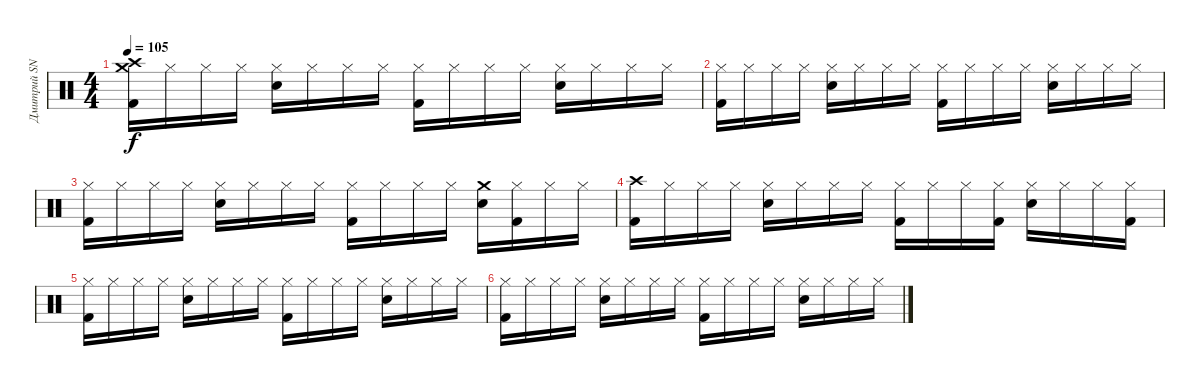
\track ("Дмитрий SNAKE Хакимов (ударные)" "Дмитрий SN") {instrument percussion}
\staff {score}
\articulation defaults
\ts (4 4)
\tempo 105
\clef neutral
\ks c
("Crash high (hit)" "Crash medium (hit)" "Kick (hit) 2").16{dy f} "Hi-Hat (closed)".16 "Hi-Hat (closed)".16 "Hi-Hat (closed)".16 ("Hi-Hat (closed)" "Snare (hit) 2").16 "Hi-Hat (closed)".16 "Hi-Hat (closed)".16 "Hi-Hat (closed)".16 ("Hi-Hat (closed)" "Kick (hit) 2").16 "Hi-Hat (closed)".16 "Hi-Hat (closed)".16 "Hi-Hat (closed)".16 ("Hi-Hat (closed)" "Snare (hit) 2").16 "Hi-Hat (closed)".16 "Hi-Hat (closed)".16 "Hi-Hat (closed)".16 |
("Hi-Hat (closed)" "Kick (hit) 2").16 "Hi-Hat (closed)".16 "Hi-Hat (closed)".16 "Hi-Hat (closed)".16 ("Hi-Hat (closed)" "Snare (hit) 2").16 "Hi-Hat (closed)".16 "Hi-Hat (closed)".16 "Hi-Hat (closed)".16 ("Hi-Hat (closed)" "Kick (hit) 2").16 "Hi-Hat (closed)".16 "Hi-Hat (closed)".16 "Hi-Hat (closed)".16 ("Hi-Hat (closed)" "Snare (hit) 2").16 "Hi-Hat (closed)".16 "Hi-Hat (closed)".16 "Hi-Hat (closed)".16 |
("Hi-Hat (closed)" "Kick (hit) 2").16 "Hi-Hat (closed)".16 "Hi-Hat (closed)".16 "Hi-Hat (closed)".16 ("Hi-Hat (closed)" "Snare (hit) 2").16 "Hi-Hat (closed)".16 "Hi-Hat (closed)".16 "Hi-Hat (closed)".16 ("Hi-Hat (closed)" "Kick (hit) 2").16 "Hi-Hat (closed)".16 "Hi-Hat (closed)".16 "Hi-Hat (closed)".16 ("Crash medium (hit)" "Snare (hit) 2").16 ("Hi-Hat (closed)" "Kick (hit) 2").16 "Hi-Hat (closed)".16 "Hi-Hat (closed)".16 |
("Crash high (hit)" "Kick (hit) 2").16 "Hi-Hat (closed)".16 "Hi-Hat (closed)".16 "Hi-Hat (closed)".16 ("Hi-Hat (closed)" "Snare (hit) 2").16 "Hi-Hat (closed)".16 "Hi-Hat (closed)".16 "Hi-Hat (closed)".16 ("Hi-Hat (closed)" "Kick (hit) 2").16 "Hi-Hat (closed)".16 "Hi-Hat (closed)".16 ("Hi-Hat (closed)" "Kick (hit) 2").16 ("Hi-Hat (closed)" "Snare (hit) 2").16 "Hi-Hat (closed)".16 "Hi-Hat (closed)".16 ("Hi-Hat (closed)" "Kick (hit) 2").16 |
("Hi-Hat (closed)" "Kick (hit) 2").16 "Hi-Hat (closed)".16 "Hi-Hat (closed)".16 "Hi-Hat (closed)".16 ("Hi-Hat (closed)" "Snare (hit) 2").16 "Hi-Hat (closed)".16 "Hi-Hat (closed)".16 "Hi-Hat (closed)".16 ("Hi-Hat (closed)" "Kick (hit) 2").16 "Hi-Hat (closed)".16 "Hi-Hat (closed)".16 "Hi-Hat (closed)".16 ("Hi-Hat (closed)" "Snare (hit) 2").16 "Hi-Hat (closed)".16 "Hi-Hat (closed)".16 "Hi-Hat (closed)".16 |
("Hi-Hat (closed)" "Kick (hit) 2").16 "Hi-Hat (closed)".16 "Hi-Hat (closed)".16 "Hi-Hat (closed)".16 ("Hi-Hat (closed)" "Snare (hit) 2").16 "Hi-Hat (closed)".16 "Hi-Hat (closed)".16 "Hi-Hat (closed)".16 ("Hi-Hat (closed)" "Kick (hit) 2").16 "Hi-Hat (closed)".16 "Hi-Hat (closed)".16 "Hi-Hat (closed)".16 ("Hi-Hat (closed)" "Snare (hit) 2").16 "Hi-Hat (closed)".16 "Hi-Hat (closed)".16 "Hi-Hat (closed)".16
